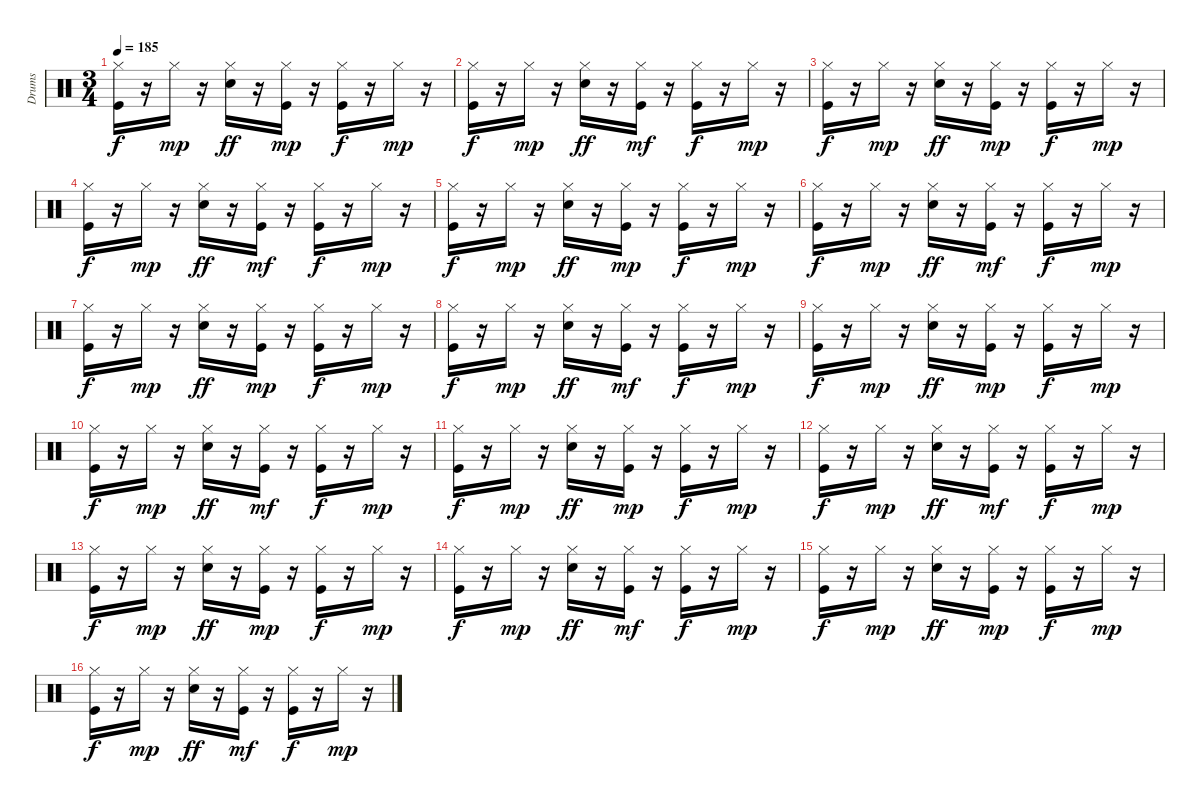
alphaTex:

\track ("Drums " "Drums ") {instrument percussion}
\staff {score}
\articulation defaults
\ts (3 4)
\tempo 185
\clef neutral
\ks c
("Kick (hit)" "Hi-Hat (closed)").16{dy f} r.16 "Hi-Hat (closed)".16{dy mp} r.16 ("Snare (hit) 2" "Hi-Hat (closed)").16{dy ff} r.16 ("Kick (hit)" "Hi-Hat (closed)").16{dy mp} r.16 ("Kick (hit)" "Hi-Hat (closed)").16{dy f} r.16 "Hi-Hat (closed)".16{dy mp} r.16 |
("Kick (hit)" "Hi-Hat (closed)").16{dy f} r.16 "Hi-Hat (closed)".16{dy mp} r.16 ("Snare (hit) 2" "Hi-Hat (closed)").16{dy ff} r.16 ("Kick (hit)" "Hi-Hat (closed)").16{dy mf} r.16 ("Kick (hit)" "Hi-Hat (closed)").16{dy f} r.16 "Hi-Hat (closed)".16{dy mp} r.16 |
("Kick (hit)" "Hi-Hat (closed)").16{dy f} r.16 "Hi-Hat (closed)".16{dy mp} r.16 ("Snare (hit) 2" "Hi-Hat (closed)").16{dy ff} r.16 ("Kick (hit)" "Hi-Hat (closed)").16{dy mp} r.16 ("Kick (hit)" "Hi-Hat (closed)").16{dy f} r.16 "Hi-Hat (closed)".16{dy mp} r.16 |
("Kick (hit)" "Hi-Hat (closed)").16{dy f} r.16 "Hi-Hat (closed)".16{dy mp} r.16 ("Snare (hit) 2" "Hi-Hat (closed)").16{dy ff} r.16 ("Kick (hit)" "Hi-Hat (closed)").16{dy mf} r.16 ("Kick (hit)" "Hi-Hat (closed)").16{dy f} r.16 "Hi-Hat (closed)".16{dy mp} r.16 |
("Kick (hit)" "Hi-Hat (closed)").16{dy f} r.16 "Hi-Hat (closed)".16{dy mp} r.16 ("Snare (hit) 2" "Hi-Hat (closed)").16{dy ff} r.16 ("Kick (hit)" "Hi-Hat (closed)").16{dy mp} r.16 ("Kick (hit)" "Hi-Hat (closed)").16{dy f} r.16 "Hi-Hat (closed)".16{dy mp} r.16 |
("Kick (hit)" "Hi-Hat (closed)").16{dy f} r.16 "Hi-Hat (closed)".16{dy mp} r.16 ("Snare (hit) 2" "Hi-Hat (closed)").16{dy ff} r.16 ("Kick (hit)" "Hi-Hat (closed)").16{dy mf} r.16 ("Kick (hit)" "Hi-Hat (closed)").16{dy f} r.16 "Hi-Hat (closed)".16{dy mp} r.16 |
("Kick (hit)" "Hi-Hat (closed)").16{dy f} r.16 "Hi-Hat (closed)".16{dy mp} r.16 ("Snare (hit) 2" "Hi-Hat (closed)").16{dy ff} r.16 ("Kick (hit)" "Hi-Hat (closed)").16{dy mp} r.16 ("Kick (hit)" "Hi-Hat (closed)").16{dy f} r.16 "Hi-Hat (closed)".16{dy mp} r.16 |
("Kick (hit)" "Hi-Hat (closed)").16{dy f} r.16 "Hi-Hat (closed)".16{dy mp} r.16 ("Snare (hit) 2" "Hi-Hat (closed)").16{dy ff} r.16 ("Kick (hit)" "Hi-Hat (closed)").16{dy mf} r.16 ("Kick (hit)" "Hi-Hat (closed)").16{dy f} r.16 "Hi-Hat (closed)".16{dy mp} r.16 |
("Kick (hit)" "Hi-Hat (closed)").16{dy f} r.16 "Hi-Hat (closed)".16{dy mp} r.16 ("Snare (hit) 2" "Hi-Hat (closed)").16{dy ff} r.16 ("Kick (hit)" "Hi-Hat (closed)").16{dy mp} r.16 ("Kick (hit)" "Hi-Hat (closed)").16{dy f} r.16 "Hi-Hat (closed)".16{dy mp} r.16 |
("Kick (hit)" "Hi-Hat (closed)").16{dy f} r.16 "Hi-Hat (closed)".16{dy mp} r.16 ("Snare (hit) 2" "Hi-Hat (closed)").16{dy ff} r.16 ("Kick (hit)" "Hi-Hat (closed)").16{dy mf} r.16 ("Kick (hit)" "Hi-Hat (closed)").16{dy f} r.16 "Hi-Hat (closed)".16{dy mp} r.16 |
("Kick (hit)" "Hi-Hat (closed)").16{dy f} r.16 "Hi-Hat (closed)".16{dy mp} r.16 ("Snare (hit) 2" "Hi-Hat (closed)").16{dy ff} r.16 ("Kick (hit)" "Hi-Hat (closed)").16{dy mp} r.16 ("Kick (hit)" "Hi-Hat (closed)").16{dy f} r.16 "Hi-Hat (closed)".16{dy mp} r.16 |
("Kick (hit)" "Hi-Hat (closed)").16{dy f} r.16 "Hi-Hat (closed)".16{dy mp} r.16 ("Snare (hit) 2" "Hi-Hat (closed)").16{dy ff} r.16 ("Kick (hit)" "Hi-Hat (closed)").16{dy mf} r.16 ("Kick (hit)" "Hi-Hat (closed)").16{dy f} r.16 "Hi-Hat (closed)".16{dy mp} r.16 |
("Kick (hit)" "Hi-Hat (closed)").16{dy f} r.16 "Hi-Hat (closed)".16{dy mp} r.16 ("Snare (hit) 2" "Hi-Hat (closed)").16{dy ff} r.16 ("Kick (hit)" "Hi-Hat (closed)").16{dy mp} r.16 ("Kick (hit)" "Hi-Hat (closed)").16{dy f} r.16 "Hi-Hat (closed)".16{dy mp} r.16 |
("Kick (hit)" "Hi-Hat (closed)").16{dy f} r.16 "Hi-Hat (closed)".16{dy mp} r.16 ("Snare (hit) 2" "Hi-Hat (closed)").16{dy ff} r.16 ("Kick (hit)" "Hi-Hat (closed)").16{dy mf} r.16 ("Kick (hit)" "Hi-Hat (closed)").16{dy f} r.16 "Hi-Hat (closed)".16{dy mp} r.16 |
("Kick (hit)" "Hi-Hat (closed)").16{dy f} r.16 "Hi-Hat (closed)".16{dy mp} r.16 ("Snare (hit) 2" "Hi-Hat (closed)").16{dy ff} r.16 ("Kick (hit)" "Hi-Hat (closed)").16{dy mp} r.16 ("Kick (hit)" "Hi-Hat (closed)").16{dy f} r.16 "Hi-Hat (closed)".16{dy mp} r.16 |
("Kick (hit)" "Hi-Hat (closed)").16{dy f} r.16 "Hi-Hat (closed)".16{dy mp} r.16 ("Snare (hit) 2" "Hi-Hat (closed)").16{dy ff} r.16 ("Kick (hit)" "Hi-Hat (closed)").16{dy mf} r.16 ("Kick (hit)" "Hi-Hat (closed)").16{dy f} r.16 "Hi-Hat (closed)".16{dy mp} r.16
